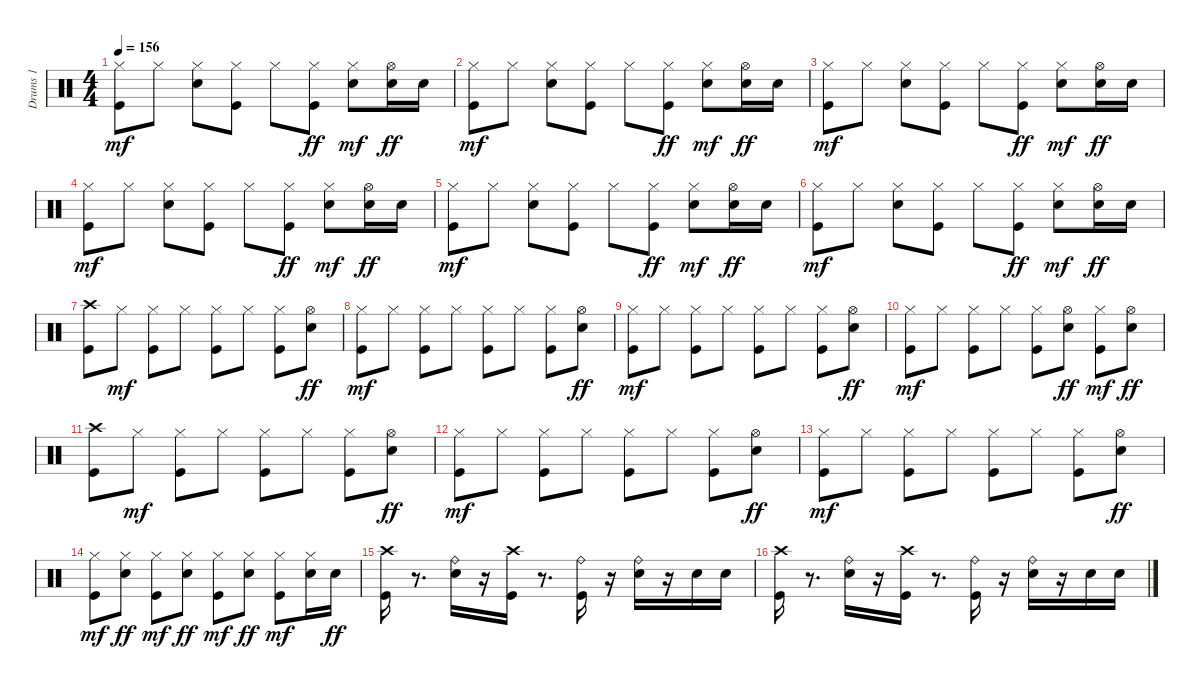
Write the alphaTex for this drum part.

\track ("Drums 1" "Drums 1") {instrument percussion}
\staff {score}
\articulation defaults
\ts (4 4)
\tempo 156
\clef neutral
\ks c
("Kick (hit)" "Hi-Hat (closed)").8{dy mf} "Hi-Hat (closed)".8 ("Electric Snare (hit)" "Hi-Hat (closed)").8 ("Kick (hit)" "Hi-Hat (closed)").8 "Hi-Hat (closed)".8 ("Hi-Hat (closed)" "Kick (hit)").8{dy ff} ("Electric Snare (hit)" "Hi-Hat (closed)").8{dy mf} ("Hi-Hat (open)" "Electric Snare (hit)").16{dy ff} "Electric Snare (hit)".16 |
("Kick (hit)" "Hi-Hat (closed)").8{dy mf} "Hi-Hat (closed)".8 ("Electric Snare (hit)" "Hi-Hat (closed)").8 ("Kick (hit)" "Hi-Hat (closed)").8 "Hi-Hat (closed)".8 ("Hi-Hat (closed)" "Kick (hit)").8{dy ff} ("Electric Snare (hit)" "Hi-Hat (closed)").8{dy mf} ("Hi-Hat (open)" "Electric Snare (hit)").16{dy ff} "Electric Snare (hit)".16 |
("Kick (hit)" "Hi-Hat (closed)").8{dy mf} "Hi-Hat (closed)".8 ("Electric Snare (hit)" "Hi-Hat (closed)").8 ("Kick (hit)" "Hi-Hat (closed)").8 "Hi-Hat (closed)".8 ("Hi-Hat (closed)" "Kick (hit)").8{dy ff} ("Electric Snare (hit)" "Hi-Hat (closed)").8{dy mf} ("Hi-Hat (open)" "Electric Snare (hit)").16{dy ff} "Electric Snare (hit)".16 |
("Kick (hit)" "Hi-Hat (closed)").8{dy mf} "Hi-Hat (closed)".8 ("Electric Snare (hit)" "Hi-Hat (closed)").8 ("Kick (hit)" "Hi-Hat (closed)").8 "Hi-Hat (closed)".8 ("Hi-Hat (closed)" "Kick (hit)").8{dy ff} ("Electric Snare (hit)" "Hi-Hat (closed)").8{dy mf} ("Hi-Hat (open)" "Electric Snare (hit)").16{dy ff} "Electric Snare (hit)".16 |
("Kick (hit)" "Hi-Hat (closed)").8{dy mf} "Hi-Hat (closed)".8 ("Electric Snare (hit)" "Hi-Hat (closed)").8 ("Kick (hit)" "Hi-Hat (closed)").8 "Hi-Hat (closed)".8 ("Hi-Hat (closed)" "Kick (hit)").8{dy ff} ("Electric Snare (hit)" "Hi-Hat (closed)").8{dy mf} ("Hi-Hat (open)" "Electric Snare (hit)").16{dy ff} "Electric Snare (hit)".16 |
("Kick (hit)" "Hi-Hat (closed)").8{dy mf} "Hi-Hat (closed)".8 ("Electric Snare (hit)" "Hi-Hat (closed)").8 ("Kick (hit)" "Hi-Hat (closed)").8 "Hi-Hat (closed)".8 ("Hi-Hat (closed)" "Kick (hit)").8{dy ff} ("Electric Snare (hit)" "Hi-Hat (closed)").8{dy mf} ("Hi-Hat (open)" "Electric Snare (hit)").16{dy ff} "Electric Snare (hit)".16 |
("Kick (hit)" "Crash high (hit)").8 "Hi-Hat (closed)".8{dy mf} ("Kick (hit)" "Hi-Hat (closed)").8 "Hi-Hat (closed)".8 ("Kick (hit)" "Hi-Hat (closed)").8 "Hi-Hat (closed)".8 ("Kick (hit)" "Hi-Hat (closed)").8 ("Electric Snare (hit)" "Hi-Hat (open)").8{dy ff} |
("Kick (hit)" "Hi-Hat (closed)").8{dy mf} "Hi-Hat (closed)".8 ("Kick (hit)" "Hi-Hat (closed)").8 "Hi-Hat (closed)".8 ("Kick (hit)" "Hi-Hat (closed)").8 "Hi-Hat (closed)".8 ("Kick (hit)" "Hi-Hat (closed)").8 ("Electric Snare (hit)" "Hi-Hat (open)").8{dy ff} |
("Kick (hit)" "Hi-Hat (closed)").8{dy mf} "Hi-Hat (closed)".8 ("Kick (hit)" "Hi-Hat (closed)").8 "Hi-Hat (closed)".8 ("Kick (hit)" "Hi-Hat (closed)").8 "Hi-Hat (closed)".8 ("Kick (hit)" "Hi-Hat (closed)").8 ("Electric Snare (hit)" "Hi-Hat (open)").8{dy ff} |
("Kick (hit)" "Hi-Hat (closed)").8{dy mf} "Hi-Hat (closed)".8 ("Kick (hit)" "Hi-Hat (closed)").8 "Hi-Hat (closed)".8 ("Kick (hit)" "Hi-Hat (closed)").8 ("Hi-Hat (open)" "Electric Snare (hit)").8{dy ff} ("Kick (hit)" "Hi-Hat (closed)").8{dy mf} ("Hi-Hat (open)" "Electric Snare (hit)").8{dy ff} |
("Kick (hit)" "Crash high (hit)").8 "Hi-Hat (closed)".8{dy mf} ("Kick (hit)" "Hi-Hat (closed)").8 "Hi-Hat (closed)".8 ("Kick (hit)" "Hi-Hat (closed)").8 "Hi-Hat (closed)".8 ("Kick (hit)" "Hi-Hat (closed)").8 ("Electric Snare (hit)" "Hi-Hat (open)").8{dy ff} |
("Kick (hit)" "Hi-Hat (closed)").8{dy mf} "Hi-Hat (closed)".8 ("Kick (hit)" "Hi-Hat (closed)").8 "Hi-Hat (closed)".8 ("Kick (hit)" "Hi-Hat (closed)").8 "Hi-Hat (closed)".8 ("Kick (hit)" "Hi-Hat (closed)").8 ("Electric Snare (hit)" "Hi-Hat (open)").8{dy ff} |
("Kick (hit)" "Hi-Hat (closed)").8{dy mf} "Hi-Hat (closed)".8 ("Kick (hit)" "Hi-Hat (closed)").8 "Hi-Hat (closed)".8 ("Kick (hit)" "Hi-Hat (closed)").8 "Hi-Hat (closed)".8 ("Kick (hit)" "Hi-Hat (closed)").8 ("Electric Snare (hit)" "Hi-Hat (open)").8{dy ff} |
("Kick (hit)" "Hi-Hat (closed)").8{dy mf} ("Hi-Hat (closed)" "Electric Snare (hit)").8{dy ff} ("Kick (hit)" "Hi-Hat (closed)").8{dy mf} ("Hi-Hat (closed)" "Electric Snare (hit)").8{dy ff} ("Kick (hit)" "Hi-Hat (closed)").8{dy mf} ("Hi-Hat (closed)" "Electric Snare (hit)").8{dy ff} ("Kick (hit)" "Hi-Hat (closed)").8{dy mf} ("Electric Snare (hit)" "Hi-Hat (closed)").16 "Electric Snare (hit)".16{dy ff} |
("Kick (hit)" "Crash high (hit)").16 r.8{d} ("Ride (bell)" "Electric Snare (hit)").16 r.16 ("Crash high (hit)" "Kick (hit)").16 r.8{d} ("Ride (bell)" "Kick (hit)").16 r.16 ("Electric Snare (hit)" "Ride (bell)").16 r.16 "Electric Snare (hit)".16 "Electric Snare (hit)".16 |
("Kick (hit)" "Crash high (hit)").16 r.8{d} ("Ride (bell)" "Electric Snare (hit)").16 r.16 ("Crash high (hit)" "Kick (hit)").16 r.8{d} ("Ride (bell)" "Kick (hit)").16 r.16 ("Electric Snare (hit)" "Ride (bell)").16 r.16 "Electric Snare (hit)".16 "Electric Snare (hit)".16
